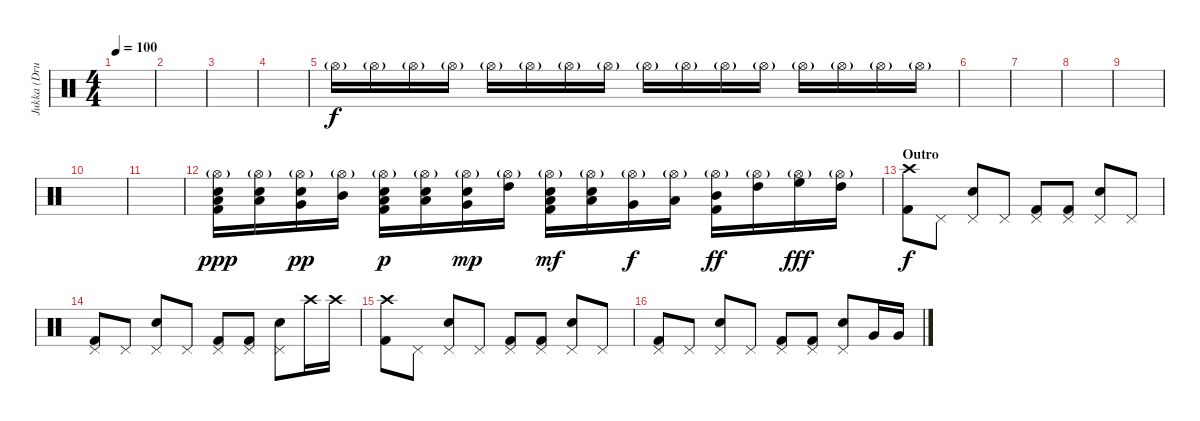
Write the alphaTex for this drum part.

\track ("Jukka (Drums)" "Jukka (Dru") {instrument percussion}
\staff {score}
\articulation defaults
\ts (4 4)
\tempo 100
\clef neutral
\ks c
|
|
|
|
"Hi-Hat (open)"{g}.16{volume 2} "Hi-Hat (open)"{g}.16 "Hi-Hat (open)"{g}.16{volume 4} "Hi-Hat (open)"{g}.16 "Hi-Hat (open)"{g}.16{volume 6} "Hi-Hat (open)"{g}.16 "Hi-Hat (open)"{g}.16{volume 8} "Hi-Hat (open)"{g}.16 "Hi-Hat (open)"{g}.16{volume 10} "Hi-Hat (open)"{g}.16 "Hi-Hat (open)"{g}.16{volume 12} "Hi-Hat (open)"{g}.16 "Hi-Hat (open)"{g}.16{volume 14} "Hi-Hat (open)"{g}.16 "Hi-Hat (open)"{g}.16{volume 16} "Hi-Hat (open)"{g}.16 |
|
|
|
|
|
|
("Hi-Hat (open)"{g} "Low Floor Tom (hit)" "Electric Snare (hit)" "Kick (hit) 2").16{dy ppp} ("Hi-Hat (open)"{g} "Low Floor Tom (hit)" "Electric Snare (hit)").16 ("Hi-Hat (open)"{g} "Very Low Tom (hit)" "Electric Snare (hit)").16{dy pp} ("Hi-Hat (open)"{g} "Mid Tom (hit)").16 ("Hi-Hat (open)"{g} "Low Floor Tom (hit)" "Electric Snare (hit)" "Kick (hit) 2").16{dy p} ("Hi-Hat (open)"{g} "Low Floor Tom (hit)" "Electric Snare (hit)").16 ("Hi-Hat (open)"{g} "Very Low Tom (hit)" "Electric Snare (hit)").16{dy mp} ("Hi-Hat (open)"{g} "High Tom (hit)").16 ("Hi-Hat (open)"{g} "Low Floor Tom (hit)" "Electric Snare (hit)" "Kick (hit) 2").16{dy mf} ("Hi-Hat (open)"{g} "Low Floor Tom (hit)" "Electric Snare (hit)").16 ("Hi-Hat (open)"{g} "Very Low Tom (hit)").16{dy f} ("Hi-Hat (open)"{g} "Low Tom (hit)").16 ("Hi-Hat (open)"{g} "Mid Tom (hit)" "Kick (hit) 2").16{dy ff} ("Hi-Hat (open)"{g} "High Tom (hit)").16 ("Hi-Hat (open)"{g} "High Floor Tom (hit)").16{dy fff} ("Hi-Hat (open)"{g} "High Tom (hit)").16 |
\section ("" "Outro")
("Crash high (hit)" "Kick (hit) 2").8{dy f} "Pedal Hi-Hat (hit)".8 ("Pedal Hi-Hat (hit)" "Snare (hit) 2").8 "Pedal Hi-Hat (hit)".8 ("Pedal Hi-Hat (hit)" "Kick (hit) 2").8 ("Pedal Hi-Hat (hit)" "Kick (hit) 2").8 ("Pedal Hi-Hat (hit)" "Snare (hit) 2").8 "Pedal Hi-Hat (hit)".8 |
("Pedal Hi-Hat (hit)" "Kick (hit) 2").8 "Pedal Hi-Hat (hit)".8 ("Pedal Hi-Hat (hit)" "Snare (hit) 2").8 "Pedal Hi-Hat (hit)".8 ("Pedal Hi-Hat (hit)" "Kick (hit) 2").8 ("Pedal Hi-Hat (hit)" "Kick (hit) 2").8 ("Pedal Hi-Hat (hit)" "Snare (hit) 2").8 "Crash high (hit)".16 "Crash high (hit)".16 |
("Crash high (hit)" "Kick (hit) 2").8 "Pedal Hi-Hat (hit)".8 ("Pedal Hi-Hat (hit)" "Snare (hit) 2").8 "Pedal Hi-Hat (hit)".8 ("Pedal Hi-Hat (hit)" "Kick (hit) 2").8 ("Pedal Hi-Hat (hit)" "Kick (hit) 2").8 ("Pedal Hi-Hat (hit)" "Snare (hit) 2").8 "Pedal Hi-Hat (hit)".8 |
("Pedal Hi-Hat (hit)" "Kick (hit) 2").8 "Pedal Hi-Hat (hit)".8 ("Pedal Hi-Hat (hit)" "Snare (hit) 2").8 "Pedal Hi-Hat (hit)".8 ("Pedal Hi-Hat (hit)" "Kick (hit) 2").8 ("Pedal Hi-Hat (hit)" "Kick (hit) 2").8 ("Pedal Hi-Hat (hit)" "Snare (hit) 2").8 "Very Low Tom (hit)".16 "Very Low Tom (hit)".16
